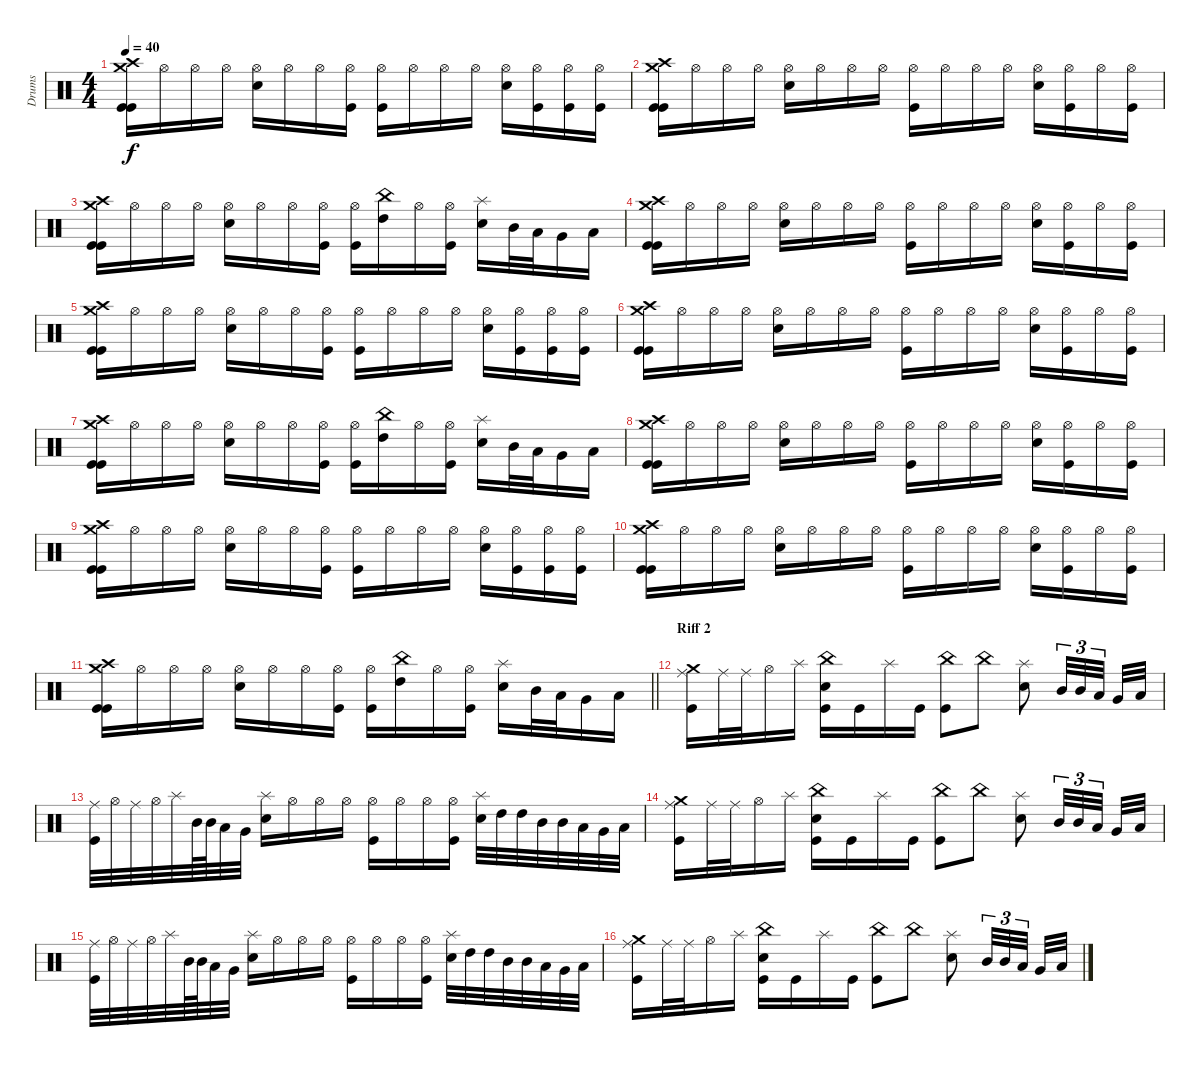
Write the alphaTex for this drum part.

\track ("Drums" "Drums") {instrument percussion}
\staff {score}
\articulation defaults
\ts (4 4)
\tempo 40
\clef neutral
\ks c
("Crash medium (hit)" "Crash high (hit)" "Kick (hit)" "Kick (hit)").16{dy f} "Hi-Hat (open)".16 "Hi-Hat (open)".16 "Hi-Hat (open)".16 ("Hi-Hat (open)" "Snare (hit) 2").16 "Hi-Hat (open)".16 "Hi-Hat (open)".16 ("Hi-Hat (open)" "Kick (hit)").16 ("Hi-Hat (open)" "Kick (hit)").16 "Hi-Hat (open)".16 "Hi-Hat (open)".16 "Hi-Hat (open)".16 ("Hi-Hat (open)" "Snare (hit) 2").16 ("Hi-Hat (open)" "Kick (hit)").16 ("Hi-Hat (open)" "Kick (hit)").16 ("Hi-Hat (open)" "Kick (hit)").16 |
("Crash medium (hit)" "Crash high (hit)" "Kick (hit)" "Kick (hit)").16 "Hi-Hat (open)".16 "Hi-Hat (open)".16 "Hi-Hat (open)".16 ("Hi-Hat (open)" "Snare (hit) 2").16 "Hi-Hat (open)".16 "Hi-Hat (open)".16 "Hi-Hat (open)".16 ("Hi-Hat (open)" "Kick (hit)").16 "Hi-Hat (open)".16 "Hi-Hat (open)".16 "Hi-Hat (open)".16 ("Hi-Hat (open)" "Snare (hit) 2").16 ("Hi-Hat (open)" "Kick (hit)").16 "Hi-Hat (open)".16 ("Hi-Hat (open)" "Kick (hit)").16 |
("Crash medium (hit)" "Crash high (hit)" "Kick (hit)" "Kick (hit)").16 "Hi-Hat (open)".16 "Hi-Hat (open)".16 "Hi-Hat (open)".16 ("Hi-Hat (open)" "Snare (hit) 2").16 "Hi-Hat (open)".16 "Hi-Hat (open)".16 ("Hi-Hat (open)" "Kick (hit)").16 ("Hi-Hat (open)" "Kick (hit)").16 ("High Tom (hit)" "China (hit)").16 "Hi-Hat (open)".16 ("Hi-Hat (open)" "Kick (hit)").16 ("Snare (hit) 2" "Splash (hit)").16 "Mid Tom (hit)".32 "Low Tom (hit)".32 "Very Low Tom (hit)".16 "Low Floor Tom (hit)".16 |
("Crash medium (hit)" "Crash high (hit)" "Kick (hit)" "Kick (hit)").16 "Hi-Hat (open)".16 "Hi-Hat (open)".16 "Hi-Hat (open)".16 ("Hi-Hat (open)" "Snare (hit) 2").16 "Hi-Hat (open)".16 "Hi-Hat (open)".16 "Hi-Hat (open)".16 ("Hi-Hat (open)" "Kick (hit)").16 "Hi-Hat (open)".16 "Hi-Hat (open)".16 "Hi-Hat (open)".16 ("Hi-Hat (open)" "Snare (hit) 2").16 ("Hi-Hat (open)" "Kick (hit)").16 "Hi-Hat (open)".16 ("Hi-Hat (open)" "Kick (hit)").16 |
("Crash medium (hit)" "Crash high (hit)" "Kick (hit)" "Kick (hit)").16 "Hi-Hat (open)".16 "Hi-Hat (open)".16 "Hi-Hat (open)".16 ("Hi-Hat (open)" "Snare (hit) 2").16 "Hi-Hat (open)".16 "Hi-Hat (open)".16 ("Hi-Hat (open)" "Kick (hit)").16 ("Hi-Hat (open)" "Kick (hit)").16 "Hi-Hat (open)".16 "Hi-Hat (open)".16 "Hi-Hat (open)".16 ("Hi-Hat (open)" "Snare (hit) 2").16 ("Hi-Hat (open)" "Kick (hit)").16 ("Hi-Hat (open)" "Kick (hit)").16 ("Hi-Hat (open)" "Kick (hit)").16 |
("Crash medium (hit)" "Crash high (hit)" "Kick (hit)" "Kick (hit)").16 "Hi-Hat (open)".16 "Hi-Hat (open)".16 "Hi-Hat (open)".16 ("Hi-Hat (open)" "Snare (hit) 2").16 "Hi-Hat (open)".16 "Hi-Hat (open)".16 "Hi-Hat (open)".16 ("Hi-Hat (open)" "Kick (hit)").16 "Hi-Hat (open)".16 "Hi-Hat (open)".16 "Hi-Hat (open)".16 ("Hi-Hat (open)" "Snare (hit) 2").16 ("Hi-Hat (open)" "Kick (hit)").16 "Hi-Hat (open)".16 ("Hi-Hat (open)" "Kick (hit)").16 |
("Crash medium (hit)" "Crash high (hit)" "Kick (hit)" "Kick (hit)").16 "Hi-Hat (open)".16 "Hi-Hat (open)".16 "Hi-Hat (open)".16 ("Hi-Hat (open)" "Snare (hit) 2").16 "Hi-Hat (open)".16 "Hi-Hat (open)".16 ("Hi-Hat (open)" "Kick (hit)").16 ("Hi-Hat (open)" "Kick (hit)").16 ("High Tom (hit)" "China (hit)").16 "Hi-Hat (open)".16 ("Hi-Hat (open)" "Kick (hit)").16 ("Snare (hit) 2" "Splash (hit)").16 "Mid Tom (hit)".32 "Low Tom (hit)".32 "Very Low Tom (hit)".16 "Low Floor Tom (hit)".16 |
("Crash medium (hit)" "Crash high (hit)" "Kick (hit)" "Kick (hit)").16 "Hi-Hat (open)".16 "Hi-Hat (open)".16 "Hi-Hat (open)".16 ("Hi-Hat (open)" "Snare (hit) 2").16 "Hi-Hat (open)".16 "Hi-Hat (open)".16 "Hi-Hat (open)".16 ("Hi-Hat (open)" "Kick (hit)").16 "Hi-Hat (open)".16 "Hi-Hat (open)".16 "Hi-Hat (open)".16 ("Hi-Hat (open)" "Snare (hit) 2").16 ("Hi-Hat (open)" "Kick (hit)").16 "Hi-Hat (open)".16 ("Hi-Hat (open)" "Kick (hit)").16 |
("Crash medium (hit)" "Crash high (hit)" "Kick (hit)" "Kick (hit)").16 "Hi-Hat (open)".16 "Hi-Hat (open)".16 "Hi-Hat (open)".16 ("Hi-Hat (open)" "Snare (hit) 2").16 "Hi-Hat (open)".16 "Hi-Hat (open)".16 ("Hi-Hat (open)" "Kick (hit)").16 ("Hi-Hat (open)" "Kick (hit)").16 "Hi-Hat (open)".16 "Hi-Hat (open)".16 "Hi-Hat (open)".16 ("Hi-Hat (open)" "Snare (hit) 2").16 ("Hi-Hat (open)" "Kick (hit)").16 ("Hi-Hat (open)" "Kick (hit)").16 ("Hi-Hat (open)" "Kick (hit)").16 |
("Crash medium (hit)" "Crash high (hit)" "Kick (hit)" "Kick (hit)").16 "Hi-Hat (open)".16 "Hi-Hat (open)".16 "Hi-Hat (open)".16 ("Hi-Hat (open)" "Snare (hit) 2").16 "Hi-Hat (open)".16 "Hi-Hat (open)".16 "Hi-Hat (open)".16 ("Hi-Hat (open)" "Kick (hit)").16 "Hi-Hat (open)".16 "Hi-Hat (open)".16 "Hi-Hat (open)".16 ("Hi-Hat (open)" "Snare (hit) 2").16 ("Hi-Hat (open)" "Kick (hit)").16 "Hi-Hat (open)".16 ("Hi-Hat (open)" "Kick (hit)").16 |
\barLineRight lightlight
("Crash medium (hit)" "Crash high (hit)" "Kick (hit)" "Kick (hit)").16 "Hi-Hat (open)".16 "Hi-Hat (open)".16 "Hi-Hat (open)".16 ("Hi-Hat (open)" "Snare (hit) 2").16 "Hi-Hat (open)".16 "Hi-Hat (open)".16 ("Hi-Hat (open)" "Kick (hit)").16 ("Hi-Hat (open)" "Kick (hit)").16 ("High Tom (hit)" "China (hit)").16 "Hi-Hat (open)".16 ("Hi-Hat (open)" "Kick (hit)").16 ("Snare (hit) 2" "Splash (hit)").16 "Mid Tom (hit)".32 "Low Tom (hit)".32 "Very Low Tom (hit)".16 "Low Floor Tom (hit)".16 |
\section ("" "Riff 2")
("Crash medium (hit)" "Kick (hit)" "Ride (middle)").16 "Ride (middle)".32 "Ride (middle)".32 "Hi-Hat (open)".16 "Splash (hit)".16 ("China (hit)" "Snare (hit) 2" "Kick (hit)").16 "Kick (hit)".16 "Splash (hit)".16 "Kick (hit)".16 ("China (hit)" "Kick (hit)").8 "China (hit)".8 ("Snare (hit) 2" "Splash (hit)").8 "Mid Tom (hit)".32{tu (3 2)} "Mid Tom (hit)".32{tu (3 2)} "Low Tom (hit)".32{tu (3 2) beam splitsecondary} "Very Low Tom (hit)".32 "Low Floor Tom (hit)".32 |
("Kick (hit)" "Ride (middle)").32 "Hi-Hat (open)".32 "Ride (middle)".32 "Hi-Hat (open)".32 "Splash (hit)".32 "Mid Tom (hit)".64 "Mid Tom (hit)".64 "Low Tom (hit)".32 "Very Low Tom (hit)".32 ("Snare (hit) 2" "Splash (hit)").16 "Hi-Hat (open)".16 "Hi-Hat (open)".16 "Hi-Hat (open)".16 ("Hi-Hat (open)" "Kick (hit)").16 "Hi-Hat (open)".16 "Hi-Hat (open)".16 ("Kick (hit)" "Hi-Hat (open)").16 ("Splash (hit)" "Snare (hit) 2").32 "High Tom (hit)".32 "High Tom (hit)".32 "Mid Tom (hit)".32 "Mid Tom (hit)".32 "Low Tom (hit)".32 "Very Low Tom (hit)".32 "Low Floor Tom (hit)".32 |
("Crash medium (hit)" "Kick (hit)" "Ride (middle)").16 "Ride (middle)".32 "Ride (middle)".32 "Hi-Hat (open)".16 "Splash (hit)".16 ("China (hit)" "Snare (hit) 2" "Kick (hit)").16 "Kick (hit)".16 "Splash (hit)".16 "Kick (hit)".16 ("China (hit)" "Kick (hit)").8 "China (hit)".8 ("Snare (hit) 2" "Splash (hit)").8 "Mid Tom (hit)".32{tu (3 2)} "Mid Tom (hit)".32{tu (3 2)} "Low Tom (hit)".32{tu (3 2) beam splitsecondary} "Very Low Tom (hit)".32 "Low Floor Tom (hit)".32 |
("Kick (hit)" "Ride (middle)").32 "Hi-Hat (open)".32 "Ride (middle)".32 "Hi-Hat (open)".32 "Splash (hit)".32 "Mid Tom (hit)".64 "Mid Tom (hit)".64 "Low Tom (hit)".32 "Very Low Tom (hit)".32 ("Snare (hit) 2" "Splash (hit)").16 "Hi-Hat (open)".16 "Hi-Hat (open)".16 "Hi-Hat (open)".16 ("Hi-Hat (open)" "Kick (hit)").16 "Hi-Hat (open)".16 "Hi-Hat (open)".16 ("Kick (hit)" "Hi-Hat (open)").16 ("Splash (hit)" "Snare (hit) 2").32 "High Tom (hit)".32 "High Tom (hit)".32 "Mid Tom (hit)".32 "Mid Tom (hit)".32 "Low Tom (hit)".32 "Very Low Tom (hit)".32 "Low Floor Tom (hit)".32 |
("Crash medium (hit)" "Kick (hit)" "Ride (middle)").16 "Ride (middle)".32 "Ride (middle)".32 "Hi-Hat (open)".16 "Splash (hit)".16 ("China (hit)" "Snare (hit) 2" "Kick (hit)").16 "Kick (hit)".16 "Splash (hit)".16 "Kick (hit)".16 ("China (hit)" "Kick (hit)").8 "China (hit)".8 ("Snare (hit) 2" "Splash (hit)").8 "Mid Tom (hit)".32{tu (3 2)} "Mid Tom (hit)".32{tu (3 2)} "Low Tom (hit)".32{tu (3 2) beam splitsecondary} "Very Low Tom (hit)".32 "Low Floor Tom (hit)".32
